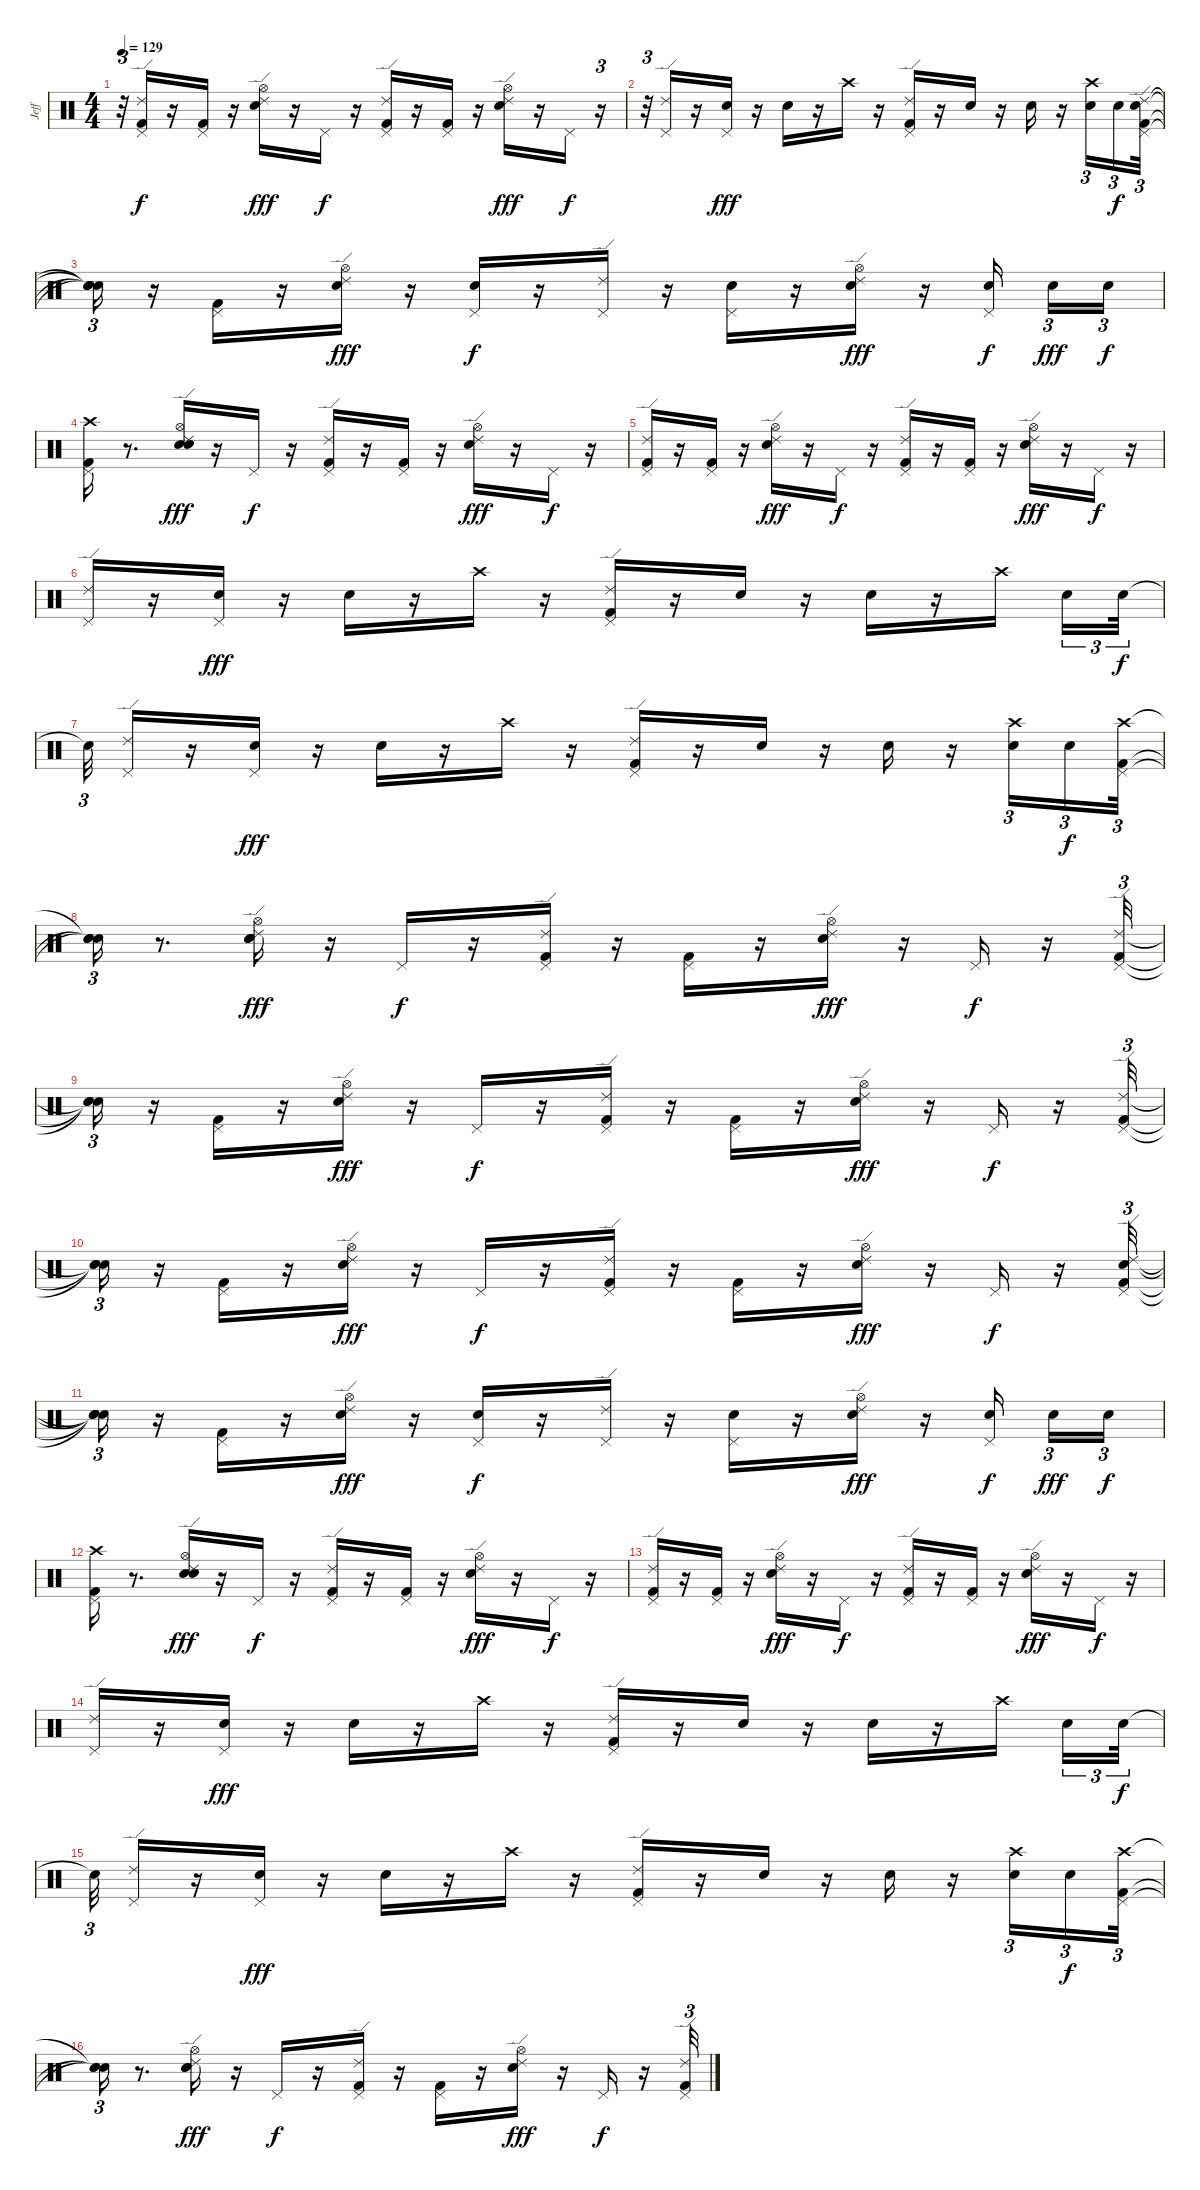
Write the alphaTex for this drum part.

\track ("Jeff" "Jeff") {instrument percussion}
\staff {score}
\articulation defaults
\ts (4 4)
\tempo 129
\clef neutral
\ks c
r.32{tu (3 2) dy f} ("Kick (hit) 2" "Pedal Hi-Hat (hit)" "Ride (edge) 2").16 r.16 ("Kick (hit) 2" "Pedal Hi-Hat (hit)").16 r.16 ("Electric Snare (hit)" "Hi-Hat (open)" "Ride (edge) 2").16{dy fff} r.16 "Pedal Hi-Hat (hit)".16{dy f} r.16 ("Kick (hit) 2" "Pedal Hi-Hat (hit)" "Ride (edge) 2").16 r.16 ("Kick (hit) 2" "Pedal Hi-Hat (hit)").16 r.16 ("Electric Snare (hit)" "Hi-Hat (open)" "Ride (edge) 2").16{dy fff} r.16 "Pedal Hi-Hat (hit)".16{dy f} r.16{tu (3 2)} |
r.32{tu (3 2)} ("Pedal Hi-Hat (hit)" "Ride (edge) 2").16 r.16 ("Electric Snare (hit)" "Pedal Hi-Hat (hit)").16{dy fff} r.16 "Electric Snare (hit)".16 r.16 "Crash high (hit)".16 r.16 ("Kick (hit) 2" "Pedal Hi-Hat (hit)" "Ride (edge) 2").16 r.16 "Electric Snare (hit)".16 r.16 "Electric Snare (hit)".16 r.16 ("Crash high (hit)" "Electric Snare (hit)").16{tu (3 2)} "Electric Snare (hit)".16{tu (3 2) dy f} ("Kick (hit) 2" "Electric Snare (hit)" "Pedal Hi-Hat (hit)" "Ride (edge) 2").32{tu (3 2)} |
("Snare (hit)"{t} "Snare (hit)"{t} "Snare (hit)"{t} "Snare (hit)"{t}).16{tu (3 2)} r.16 ("Kick (hit) 2" "Pedal Hi-Hat (hit)").16 r.16 ("Electric Snare (hit)" "Hi-Hat (open)" "Ride (edge) 2").16{dy fff} r.16 ("Electric Snare (hit)" "Pedal Hi-Hat (hit)").16{dy f} r.16 ("Pedal Hi-Hat (hit)" "Ride (edge) 2").16 r.16 ("Electric Snare (hit)" "Pedal Hi-Hat (hit)").16 r.16 ("Electric Snare (hit)" "Hi-Hat (open)" "Ride (edge) 2").16{dy fff} r.16 ("Electric Snare (hit)" "Pedal Hi-Hat (hit)").16{dy f beam splitsecondary} "Electric Snare (hit)".16{tu (3 2) dy fff} "Electric Snare (hit)".16{tu (3 2) dy f} |
("Kick (hit) 2" "Pedal Hi-Hat (hit)" "Crash high (hit)").16 r.8{d} ("Snare (hit) 2" "Electric Snare (hit)" "Hi-Hat (open)" "Ride (edge) 2").16{dy fff} r.16 "Pedal Hi-Hat (hit)".16{dy f} r.16 ("Kick (hit) 2" "Pedal Hi-Hat (hit)" "Ride (edge) 2").16 r.16 ("Kick (hit) 2" "Pedal Hi-Hat (hit)").16 r.16 ("Electric Snare (hit)" "Hi-Hat (open)" "Ride (edge) 2").16{dy fff} r.16 "Pedal Hi-Hat (hit)".16{dy f} r.16 |
("Kick (hit) 2" "Pedal Hi-Hat (hit)" "Ride (edge) 2").16 r.16 ("Kick (hit) 2" "Pedal Hi-Hat (hit)").16 r.16 ("Electric Snare (hit)" "Hi-Hat (open)" "Ride (edge) 2").16{dy fff} r.16 "Pedal Hi-Hat (hit)".16{dy f} r.16 ("Kick (hit) 2" "Pedal Hi-Hat (hit)" "Ride (edge) 2").16 r.16 ("Kick (hit) 2" "Pedal Hi-Hat (hit)").16 r.16 ("Electric Snare (hit)" "Hi-Hat (open)" "Ride (edge) 2").16{dy fff} r.16 "Pedal Hi-Hat (hit)".16{dy f} r.16 |
("Pedal Hi-Hat (hit)" "Ride (edge) 2").16 r.16 ("Electric Snare (hit)" "Pedal Hi-Hat (hit)").16{dy fff} r.16 "Electric Snare (hit)".16 r.16 "Crash high (hit)".16 r.16 ("Kick (hit) 2" "Pedal Hi-Hat (hit)" "Ride (edge) 2").16 r.16 "Electric Snare (hit)".16 r.16 "Electric Snare (hit)".16 r.16 "Crash high (hit)".16{beam splitsecondary} "Electric Snare (hit)".16{tu (3 2)} "Electric Snare (hit)".32{tu (3 2) dy f} |
"Snare (hit)"{t}.32{tu (3 2)} ("Pedal Hi-Hat (hit)" "Ride (edge) 2").16 r.16 ("Electric Snare (hit)" "Pedal Hi-Hat (hit)").16{dy fff} r.16 "Electric Snare (hit)".16 r.16 "Crash high (hit)".16 r.16 ("Kick (hit) 2" "Pedal Hi-Hat (hit)" "Ride (edge) 2").16 r.16 "Electric Snare (hit)".16 r.16 "Electric Snare (hit)".16 r.16 ("Crash high (hit)" "Electric Snare (hit)").16{tu (3 2)} "Electric Snare (hit)".16{tu (3 2) dy f} ("Kick (hit) 2" "Pedal Hi-Hat (hit)" "Crash high (hit)").32{tu (3 2)} |
("Snare (hit)"{t} "Snare (hit)"{t} "Snare (hit)"{t}).16{tu (3 2)} r.8{d} ("Snare (hit) 2" "Electric Snare (hit)" "Hi-Hat (open)" "Ride (edge) 2").16{dy fff} r.16 "Pedal Hi-Hat (hit)".16{dy f} r.16 ("Kick (hit) 2" "Pedal Hi-Hat (hit)" "Ride (edge) 2").16 r.16 ("Kick (hit) 2" "Pedal Hi-Hat (hit)").16 r.16 ("Electric Snare (hit)" "Hi-Hat (open)" "Ride (edge) 2").16{dy fff} r.16 "Pedal Hi-Hat (hit)".16{dy f} r.16 ("Kick (hit) 2" "Pedal Hi-Hat (hit)" "Ride (edge) 2").32{tu (3 2)} |
("Snare (hit)"{t} "Snare (hit)"{t} "Snare (hit)"{t}).16{tu (3 2)} r.16 ("Kick (hit) 2" "Pedal Hi-Hat (hit)").16 r.16 ("Electric Snare (hit)" "Hi-Hat (open)" "Ride (edge) 2").16{dy fff} r.16 "Pedal Hi-Hat (hit)".16{dy f} r.16 ("Kick (hit) 2" "Pedal Hi-Hat (hit)" "Ride (edge) 2").16 r.16 ("Kick (hit) 2" "Pedal Hi-Hat (hit)").16 r.16 ("Electric Snare (hit)" "Hi-Hat (open)" "Ride (edge) 2").16{dy fff} r.16 "Pedal Hi-Hat (hit)".16{dy f} r.16 ("Kick (hit) 2" "Pedal Hi-Hat (hit)" "Ride (edge) 2").32{tu (3 2)} |
("Snare (hit)"{t} "Snare (hit)"{t} "Snare (hit)"{t}).16{tu (3 2)} r.16 ("Kick (hit) 2" "Pedal Hi-Hat (hit)").16 r.16 ("Electric Snare (hit)" "Hi-Hat (open)" "Ride (edge) 2").16{dy fff} r.16 "Pedal Hi-Hat (hit)".16{dy f} r.16 ("Kick (hit) 2" "Pedal Hi-Hat (hit)" "Ride (edge) 2").16 r.16 ("Kick (hit) 2" "Pedal Hi-Hat (hit)").16 r.16 ("Electric Snare (hit)" "Hi-Hat (open)" "Ride (edge) 2").16{dy fff} r.16 "Pedal Hi-Hat (hit)".16{dy f} r.16 ("Kick (hit) 2" "Electric Snare (hit)" "Pedal Hi-Hat (hit)" "Ride (edge) 2").32{tu (3 2)} |
("Snare (hit)"{t} "Snare (hit)"{t} "Snare (hit)"{t} "Snare (hit)"{t}).16{tu (3 2)} r.16 ("Kick (hit) 2" "Pedal Hi-Hat (hit)").16 r.16 ("Electric Snare (hit)" "Hi-Hat (open)" "Ride (edge) 2").16{dy fff} r.16 ("Electric Snare (hit)" "Pedal Hi-Hat (hit)").16{dy f} r.16 ("Pedal Hi-Hat (hit)" "Ride (edge) 2").16 r.16 ("Electric Snare (hit)" "Pedal Hi-Hat (hit)").16 r.16 ("Electric Snare (hit)" "Hi-Hat (open)" "Ride (edge) 2").16{dy fff} r.16 ("Electric Snare (hit)" "Pedal Hi-Hat (hit)").16{dy f beam splitsecondary} "Electric Snare (hit)".16{tu (3 2) dy fff} "Electric Snare (hit)".16{tu (3 2) dy f} |
("Kick (hit) 2" "Pedal Hi-Hat (hit)" "Crash high (hit)").16 r.8{d} ("Snare (hit) 2" "Electric Snare (hit)" "Hi-Hat (open)" "Ride (edge) 2").16{dy fff} r.16 "Pedal Hi-Hat (hit)".16{dy f} r.16 ("Kick (hit) 2" "Pedal Hi-Hat (hit)" "Ride (edge) 2").16 r.16 ("Kick (hit) 2" "Pedal Hi-Hat (hit)").16 r.16 ("Electric Snare (hit)" "Hi-Hat (open)" "Ride (edge) 2").16{dy fff} r.16 "Pedal Hi-Hat (hit)".16{dy f} r.16 |
("Kick (hit) 2" "Pedal Hi-Hat (hit)" "Ride (edge) 2").16 r.16 ("Kick (hit) 2" "Pedal Hi-Hat (hit)").16 r.16 ("Electric Snare (hit)" "Hi-Hat (open)" "Ride (edge) 2").16{dy fff} r.16 "Pedal Hi-Hat (hit)".16{dy f} r.16 ("Kick (hit) 2" "Pedal Hi-Hat (hit)" "Ride (edge) 2").16 r.16 ("Kick (hit) 2" "Pedal Hi-Hat (hit)").16 r.16 ("Electric Snare (hit)" "Hi-Hat (open)" "Ride (edge) 2").16{dy fff} r.16 "Pedal Hi-Hat (hit)".16{dy f} r.16 |
("Pedal Hi-Hat (hit)" "Ride (edge) 2").16 r.16 ("Electric Snare (hit)" "Pedal Hi-Hat (hit)").16{dy fff} r.16 "Electric Snare (hit)".16 r.16 "Crash high (hit)".16 r.16 ("Kick (hit) 2" "Pedal Hi-Hat (hit)" "Ride (edge) 2").16 r.16 "Electric Snare (hit)".16 r.16 "Electric Snare (hit)".16 r.16 "Crash high (hit)".16{beam splitsecondary} "Electric Snare (hit)".16{tu (3 2)} "Electric Snare (hit)".32{tu (3 2) dy f} |
"Snare (hit)"{t}.32{tu (3 2)} ("Pedal Hi-Hat (hit)" "Ride (edge) 2").16 r.16 ("Electric Snare (hit)" "Pedal Hi-Hat (hit)").16{dy fff} r.16 "Electric Snare (hit)".16 r.16 "Crash high (hit)".16 r.16 ("Kick (hit) 2" "Pedal Hi-Hat (hit)" "Ride (edge) 2").16 r.16 "Electric Snare (hit)".16 r.16 "Electric Snare (hit)".16 r.16 ("Crash high (hit)" "Electric Snare (hit)").16{tu (3 2)} "Electric Snare (hit)".16{tu (3 2) dy f} ("Kick (hit) 2" "Pedal Hi-Hat (hit)" "Crash high (hit)").32{tu (3 2)} |
("Snare (hit)"{t} "Snare (hit)"{t} "Snare (hit)"{t}).16{tu (3 2)} r.8{d} ("Snare (hit) 2" "Electric Snare (hit)" "Hi-Hat (open)" "Ride (edge) 2").16{dy fff} r.16 "Pedal Hi-Hat (hit)".16{dy f} r.16 ("Kick (hit) 2" "Pedal Hi-Hat (hit)" "Ride (edge) 2").16 r.16 ("Kick (hit) 2" "Pedal Hi-Hat (hit)").16 r.16 ("Electric Snare (hit)" "Hi-Hat (open)" "Ride (edge) 2").16{dy fff} r.16 "Pedal Hi-Hat (hit)".16{dy f} r.16 ("Kick (hit) 2" "Pedal Hi-Hat (hit)" "Ride (edge) 2").32{tu (3 2)}
